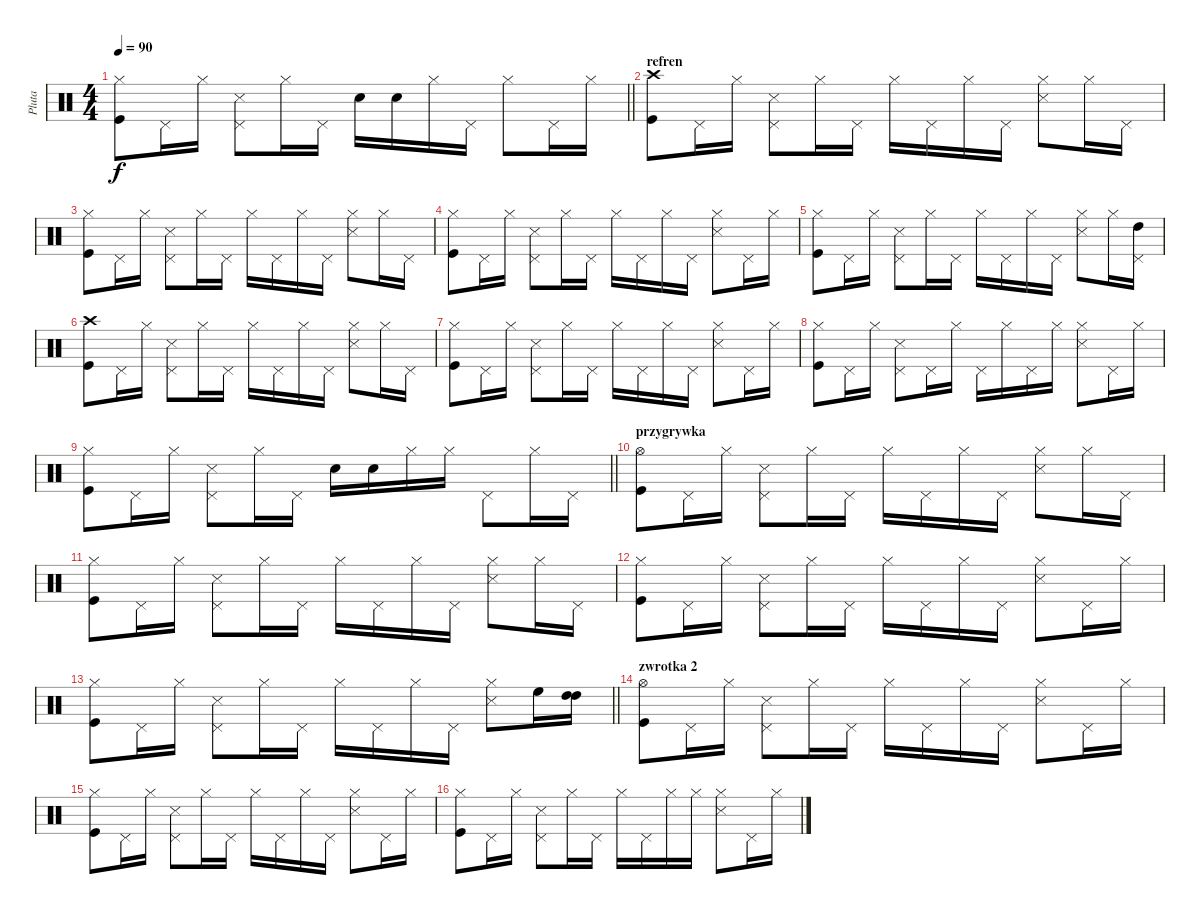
\track ("Pluta" "Pluta") {instrument percussion}
\staff {score}
\articulation defaults
\ts (4 4)
\tempo 90
\clef neutral
\barLineRight lightlight
\ks c
("Hi-Hat (closed)" "Kick (hit)").8{dy f} "Pedal Hi-Hat (hit)".16 "Hi-Hat (closed)".16 ("Pedal Hi-Hat (hit)" "Snare (side stick) 3").8 "Hi-Hat (closed)".16 "Pedal Hi-Hat (hit)".16 "Snare (hit) 2".16 "Snare (hit) 2".16 "Hi-Hat (closed)".16 "Pedal Hi-Hat (hit)".16 "Hi-Hat (closed)".8 "Pedal Hi-Hat (hit)".16 "Hi-Hat (closed)".16 |
\section ("" "refren")
("Crash high (hit)" "Kick (hit)").8 "Pedal Hi-Hat (hit)".16 "Hi-Hat (closed)".16 ("Pedal Hi-Hat (hit)" "Snare (side stick) 3").8 "Hi-Hat (closed)".16 "Pedal Hi-Hat (hit)".16 "Hi-Hat (closed)".16 "Pedal Hi-Hat (hit)".16 "Hi-Hat (closed)".16 "Pedal Hi-Hat (hit)".16 ("Hi-Hat (closed)" "Snare (side stick) 3").8 "Hi-Hat (closed)".16 "Pedal Hi-Hat (hit)".16 |
("Hi-Hat (closed)" "Kick (hit)").8 "Pedal Hi-Hat (hit)".16 "Hi-Hat (closed)".16 ("Pedal Hi-Hat (hit)" "Snare (side stick) 3").8 "Hi-Hat (closed)".16 "Pedal Hi-Hat (hit)".16 "Hi-Hat (closed)".16 "Pedal Hi-Hat (hit)".16 "Hi-Hat (closed)".16 "Pedal Hi-Hat (hit)".16 ("Hi-Hat (closed)" "Snare (side stick) 3").8 "Hi-Hat (closed)".16 "Pedal Hi-Hat (hit)".16 |
("Hi-Hat (closed)" "Kick (hit)").8 "Pedal Hi-Hat (hit)".16 "Hi-Hat (closed)".16 ("Pedal Hi-Hat (hit)" "Snare (side stick) 3").8 "Hi-Hat (closed)".16 "Pedal Hi-Hat (hit)".16 "Hi-Hat (closed)".16 "Pedal Hi-Hat (hit)".16 "Hi-Hat (closed)".16 "Pedal Hi-Hat (hit)".16 ("Hi-Hat (closed)" "Snare (side stick) 3").8 "Pedal Hi-Hat (hit)".16 "Hi-Hat (closed)".16 |
("Hi-Hat (closed)" "Kick (hit)").8 "Pedal Hi-Hat (hit)".16 "Hi-Hat (closed)".16 ("Pedal Hi-Hat (hit)" "Snare (side stick) 3").8 "Hi-Hat (closed)".16 "Pedal Hi-Hat (hit)".16 "Hi-Hat (closed)".16 "Pedal Hi-Hat (hit)".16 "Hi-Hat (closed)".16 "Pedal Hi-Hat (hit)".16 ("Hi-Hat (closed)" "Snare (side stick) 3").8 "Hi-Hat (closed)".16 ("Pedal Hi-Hat (hit)" "High Tom (hit)").16 |
("Crash high (hit)" "Kick (hit)").8 "Pedal Hi-Hat (hit)".16 "Hi-Hat (closed)".16 ("Pedal Hi-Hat (hit)" "Snare (side stick) 3").8 "Hi-Hat (closed)".16 "Pedal Hi-Hat (hit)".16 "Hi-Hat (closed)".16 "Pedal Hi-Hat (hit)".16 "Hi-Hat (closed)".16 "Pedal Hi-Hat (hit)".16 ("Hi-Hat (closed)" "Snare (side stick) 3").8 "Hi-Hat (closed)".16 "Pedal Hi-Hat (hit)".16 |
("Hi-Hat (closed)" "Kick (hit)").8 "Pedal Hi-Hat (hit)".16 "Hi-Hat (closed)".16 ("Pedal Hi-Hat (hit)" "Snare (side stick) 3").8 "Hi-Hat (closed)".16 "Pedal Hi-Hat (hit)".16 "Hi-Hat (closed)".16 "Pedal Hi-Hat (hit)".16 "Hi-Hat (closed)".16 "Pedal Hi-Hat (hit)".16 ("Hi-Hat (closed)" "Snare (side stick) 3").8 "Pedal Hi-Hat (hit)".16 "Hi-Hat (closed)".16 |
("Hi-Hat (closed)" "Kick (hit)").8 "Pedal Hi-Hat (hit)".16 "Hi-Hat (closed)".16 ("Pedal Hi-Hat (hit)" "Snare (side stick) 3").8 "Pedal Hi-Hat (hit)".16 "Hi-Hat (closed)".16 "Pedal Hi-Hat (hit)".16 "Hi-Hat (closed)".16 "Pedal Hi-Hat (hit)".16 "Hi-Hat (closed)".16 ("Hi-Hat (closed)" "Snare (side stick) 3").8 "Pedal Hi-Hat (hit)".16 "Hi-Hat (closed)".16 |
\barLineRight lightlight
("Hi-Hat (closed)" "Kick (hit)").8 "Pedal Hi-Hat (hit)".16 "Hi-Hat (closed)".16 ("Pedal Hi-Hat (hit)" "Snare (side stick) 3").8 "Hi-Hat (closed)".16 "Pedal Hi-Hat (hit)".16 "Snare (hit) 2".16 "Snare (hit) 2".16 "Hi-Hat (closed)".16 "Hi-Hat (closed)".16 "Pedal Hi-Hat (hit)".8 "Hi-Hat (closed)".16 "Pedal Hi-Hat (hit)".16 |
\section ("" "przygrywka")
("Hi-Hat (open)" "Kick (hit)").8 "Pedal Hi-Hat (hit)".16 "Hi-Hat (closed)".16 ("Pedal Hi-Hat (hit)" "Snare (side stick) 3").8 "Hi-Hat (closed)".16 "Pedal Hi-Hat (hit)".16 "Hi-Hat (closed)".16 "Pedal Hi-Hat (hit)".16 "Hi-Hat (closed)".16 "Pedal Hi-Hat (hit)".16 ("Hi-Hat (closed)" "Snare (side stick) 3").8 "Hi-Hat (closed)".16 "Pedal Hi-Hat (hit)".16 |
("Hi-Hat (closed)" "Kick (hit)").8 "Pedal Hi-Hat (hit)".16 "Hi-Hat (closed)".16 ("Pedal Hi-Hat (hit)" "Snare (side stick) 3").8 "Hi-Hat (closed)".16 "Pedal Hi-Hat (hit)".16 "Hi-Hat (closed)".16 "Pedal Hi-Hat (hit)".16 "Hi-Hat (closed)".16 "Pedal Hi-Hat (hit)".16 ("Hi-Hat (closed)" "Snare (side stick) 3").8 "Hi-Hat (closed)".16 "Pedal Hi-Hat (hit)".16 |
("Hi-Hat (closed)" "Kick (hit)").8 "Pedal Hi-Hat (hit)".16 "Hi-Hat (closed)".16 ("Pedal Hi-Hat (hit)" "Snare (side stick) 3").8 "Hi-Hat (closed)".16 "Pedal Hi-Hat (hit)".16 "Hi-Hat (closed)".16 "Pedal Hi-Hat (hit)".16 "Hi-Hat (closed)".16 "Pedal Hi-Hat (hit)".16 ("Hi-Hat (closed)" "Snare (side stick) 3").8 "Pedal Hi-Hat (hit)".16 "Hi-Hat (closed)".16 |
\barLineRight lightlight
("Hi-Hat (closed)" "Kick (hit)").8 "Pedal Hi-Hat (hit)".16 "Hi-Hat (closed)".16 ("Pedal Hi-Hat (hit)" "Snare (side stick) 3").8 "Hi-Hat (closed)".16 "Pedal Hi-Hat (hit)".16 "Hi-Hat (closed)".16 "Pedal Hi-Hat (hit)".16 "Hi-Hat (closed)".16 "Pedal Hi-Hat (hit)".16 ("Hi-Hat (closed)" "Snare (side stick) 3").8 "High Floor Tom (hit)".16 ("High Tom (hit)" "High Tom (hit)").16 |
\section ("" "zwrotka 2")
("Hi-Hat (open)" "Kick (hit)").8 "Pedal Hi-Hat (hit)".16 "Hi-Hat (closed)".16 ("Pedal Hi-Hat (hit)" "Snare (side stick) 3").8 "Hi-Hat (closed)".16 "Pedal Hi-Hat (hit)".16 "Hi-Hat (closed)".16 "Pedal Hi-Hat (hit)".16 "Hi-Hat (closed)".16 "Pedal Hi-Hat (hit)".16 ("Hi-Hat (closed)" "Snare (side stick) 3").8 "Pedal Hi-Hat (hit)".16 "Hi-Hat (closed)".16 |
("Hi-Hat (closed)" "Kick (hit)").8 "Pedal Hi-Hat (hit)".16 "Hi-Hat (closed)".16 ("Pedal Hi-Hat (hit)" "Snare (side stick) 3").8 "Hi-Hat (closed)".16 "Pedal Hi-Hat (hit)".16 "Hi-Hat (closed)".16 "Pedal Hi-Hat (hit)".16 "Hi-Hat (closed)".16 "Pedal Hi-Hat (hit)".16 ("Hi-Hat (closed)" "Snare (side stick) 3").8 "Pedal Hi-Hat (hit)".16 "Hi-Hat (closed)".16 |
("Hi-Hat (closed)" "Kick (hit)").8 "Pedal Hi-Hat (hit)".16 "Hi-Hat (closed)".16 ("Pedal Hi-Hat (hit)" "Snare (side stick) 3").8 "Hi-Hat (closed)".16 "Pedal Hi-Hat (hit)".16 "Hi-Hat (closed)".16 "Pedal Hi-Hat (hit)".16 "Hi-Hat (closed)".16 "Hi-Hat (closed)".16 ("Hi-Hat (closed)" "Snare (side stick) 3").8 "Pedal Hi-Hat (hit)".16 "Hi-Hat (closed)".16
